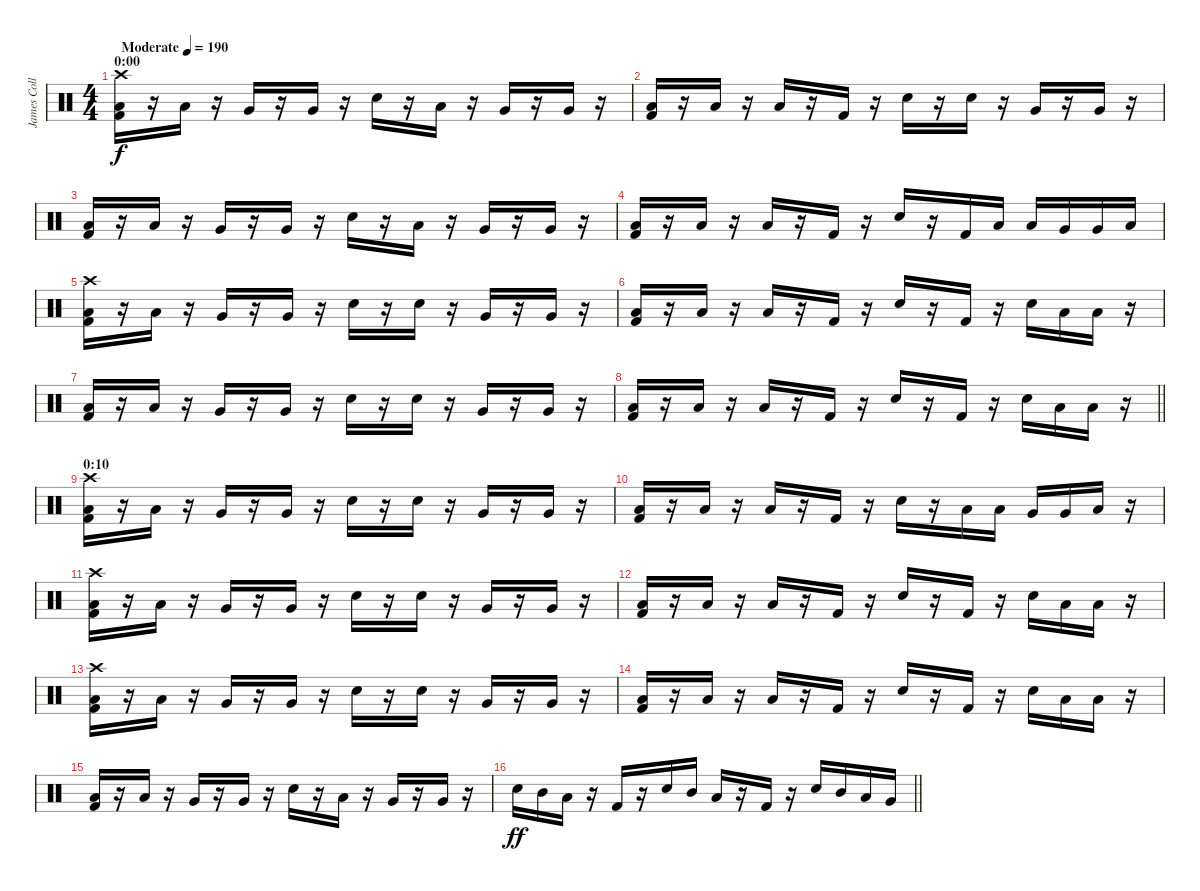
\track ("James Collins" "James Coll") {instrument percussion}
\staff {score}
\articulation defaults
\ts (4 4)
\section ("" "0:00")
\tempo (190 "Moderate")
\clef neutral
\ks c
("Crash high (hit)" "Low Tom (hit)" "Kick (hit) 2").16{dy f} r.16 "Low Tom (hit)".16 r.16 "Very Low Tom (hit)".16 r.16 "Very Low Tom (hit)".16 r.16 "Electric Snare (hit)".16 r.16 "Low Tom (hit)".16 r.16 "Very Low Tom (hit)".16 r.16 "Very Low Tom (hit)".16 r.16 |
("Low Tom (hit)" "Kick (hit) 2").16 r.16 "Low Tom (hit)".16 r.16 "Low Tom (hit)".16 r.16 "Kick (hit) 2".16 r.16 "Electric Snare (hit)".16 r.16 "Electric Snare (hit)".16 r.16 "Very Low Tom (hit)".16 r.16 "Very Low Tom (hit)".16 r.16 |
("Low Tom (hit)" "Kick (hit) 2").16 r.16 "Low Tom (hit)".16 r.16 "Very Low Tom (hit)".16 r.16 "Very Low Tom (hit)".16 r.16 "Electric Snare (hit)".16 r.16 "Low Tom (hit)".16 r.16 "Very Low Tom (hit)".16 r.16 "Very Low Tom (hit)".16 r.16 |
("Low Tom (hit)" "Kick (hit) 2").16 r.16 "Low Tom (hit)".16 r.16 "Low Tom (hit)".16 r.16 "Kick (hit) 2".16 r.16 "Electric Snare (hit)".16 r.16 "Kick (hit) 2".16 "Low Tom (hit)".16 "Low Tom (hit)".16 "Very Low Tom (hit)".16 "Very Low Tom (hit)".16 "Low Floor Tom (hit)".16 |
("Crash high (hit)" "Low Tom (hit)" "Kick (hit) 2").16 r.16 "Low Tom (hit)".16 r.16 "Very Low Tom (hit)".16 r.16 "Very Low Tom (hit)".16 r.16 "Electric Snare (hit)".16 r.16 "Electric Snare (hit)".16 r.16 "Very Low Tom (hit)".16 r.16 "Very Low Tom (hit)".16 r.16 |
("Low Tom (hit)" "Kick (hit) 2").16 r.16 "Low Tom (hit)".16 r.16 "Low Tom (hit)".16 r.16 "Kick (hit) 2".16 r.16 "Electric Snare (hit)".16 r.16 "Kick (hit) 2".16 r.16 "Electric Snare (hit)".16 "Low Tom (hit)".16 "Low Tom (hit)".16 r.16 |
("Low Tom (hit)" "Kick (hit) 2").16 r.16 "Low Tom (hit)".16 r.16 "Very Low Tom (hit)".16 r.16 "Very Low Tom (hit)".16 r.16 "Electric Snare (hit)".16 r.16 "Electric Snare (hit)".16 r.16 "Very Low Tom (hit)".16 r.16 "Very Low Tom (hit)".16 r.16 |
\barLineRight lightlight
("Low Tom (hit)" "Kick (hit) 2").16 r.16 "Low Tom (hit)".16 r.16 "Low Tom (hit)".16 r.16 "Kick (hit) 2".16 r.16 "Electric Snare (hit)".16 r.16 "Kick (hit) 2".16 r.16 "Electric Snare (hit)".16 "Low Tom (hit)".16 "Low Tom (hit)".16 r.16 |
\section ("" "0:10")
("Crash high (hit)" "Low Tom (hit)" "Kick (hit) 2").16 r.16 "Low Tom (hit)".16 r.16 "Very Low Tom (hit)".16 r.16 "Very Low Tom (hit)".16 r.16 "Electric Snare (hit)".16 r.16 "Electric Snare (hit)".16 r.16 "Very Low Tom (hit)".16 r.16 "Very Low Tom (hit)".16 r.16 |
("Low Tom (hit)" "Kick (hit) 2").16 r.16 "Low Tom (hit)".16 r.16 "Low Tom (hit)".16 r.16 "Kick (hit) 2".16 r.16 "Electric Snare (hit)".16 r.16 "Low Tom (hit)".16 "Low Tom (hit)".16 "Very Low Tom (hit)".16 "Very Low Tom (hit)".16 "Low Floor Tom (hit)".16 r.16 |
("Crash high (hit)" "Low Tom (hit)" "Kick (hit) 2").16 r.16 "Low Tom (hit)".16 r.16 "Very Low Tom (hit)".16 r.16 "Very Low Tom (hit)".16 r.16 "Electric Snare (hit)".16 r.16 "Electric Snare (hit)".16 r.16 "Very Low Tom (hit)".16 r.16 "Very Low Tom (hit)".16 r.16 |
("Low Tom (hit)" "Kick (hit) 2").16 r.16 "Low Tom (hit)".16 r.16 "Low Tom (hit)".16 r.16 "Kick (hit) 2".16 r.16 "Electric Snare (hit)".16 r.16 "Kick (hit) 2".16 r.16 "Electric Snare (hit)".16 "Low Tom (hit)".16 "Low Tom (hit)".16 r.16 |
("Crash high (hit)" "Low Tom (hit)" "Kick (hit) 2").16 r.16 "Low Tom (hit)".16 r.16 "Very Low Tom (hit)".16 r.16 "Very Low Tom (hit)".16 r.16 "Electric Snare (hit)".16 r.16 "Electric Snare (hit)".16 r.16 "Very Low Tom (hit)".16 r.16 "Very Low Tom (hit)".16 r.16 |
("Low Tom (hit)" "Kick (hit) 2").16 r.16 "Low Tom (hit)".16 r.16 "Low Tom (hit)".16 r.16 "Kick (hit) 2".16 r.16 "Electric Snare (hit)".16 r.16 "Kick (hit) 2".16 r.16 "Electric Snare (hit)".16 "Low Tom (hit)".16 "Low Tom (hit)".16 r.16 |
("Low Tom (hit)" "Kick (hit) 2").16 r.16 "Low Tom (hit)".16 r.16 "Very Low Tom (hit)".16 r.16 "Very Low Tom (hit)".16 r.16 "Electric Snare (hit)".16 r.16 "Low Tom (hit)".16 r.16 "Very Low Tom (hit)".16 r.16 "Very Low Tom (hit)".16 r.16 |
\barLineRight lightlight "Electric Snare (hit)".16{dy ff} "Mid Tom (hit)".16 "Low Tom (hit)".16
r.16 "Kick (hit) 2".16 r.16 "Electric Snare (hit)".16 "Mid Tom (hit)".16 "Low Tom (hit)".16 r.16 "Kick (hit) 2".16 r.16 "Electric Snare (hit)".16 "Mid Tom (hit)".16 "Low Tom (hit)".16 "Very Low Tom (hit)".16
